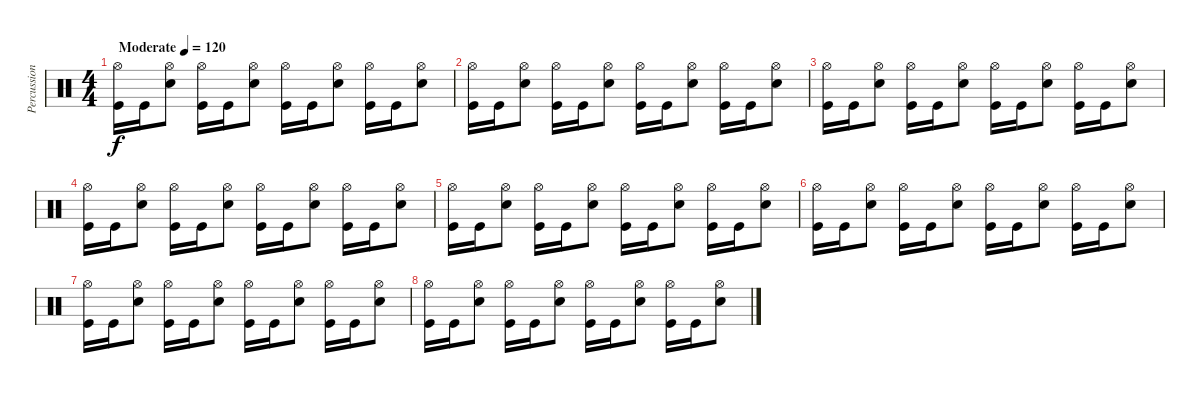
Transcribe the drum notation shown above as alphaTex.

\track ("Percussion" "Percussion") {instrument percussion}
\staff {score}
\articulation defaults
\ts (4 4)
\tempo (120 "Moderate")
\clef neutral
\ks c
("Hi-Hat (open)" "Kick (hit)").16{dy f} "Kick (hit)".16 ("Hi-Hat (open)" "Snare (hit) 2").8 ("Hi-Hat (open)" "Kick (hit)").16 "Kick (hit)".16 ("Hi-Hat (open)" "Snare (hit) 2").8 ("Hi-Hat (open)" "Kick (hit)").16 "Kick (hit)".16 ("Hi-Hat (open)" "Snare (hit) 2").8 ("Hi-Hat (open)" "Kick (hit)").16 "Kick (hit)".16 ("Hi-Hat (open)" "Snare (hit) 2").8 |
("Hi-Hat (open)" "Kick (hit)").16 "Kick (hit)".16 ("Hi-Hat (open)" "Snare (hit) 2").8 ("Hi-Hat (open)" "Kick (hit)").16 "Kick (hit)".16 ("Hi-Hat (open)" "Snare (hit) 2").8 ("Hi-Hat (open)" "Kick (hit)").16 "Kick (hit)".16 ("Hi-Hat (open)" "Snare (hit) 2").8 ("Hi-Hat (open)" "Kick (hit)").16 "Kick (hit)".16 ("Hi-Hat (open)" "Snare (hit) 2").8 |
("Hi-Hat (open)" "Kick (hit)").16 "Kick (hit)".16 ("Hi-Hat (open)" "Snare (hit) 2").8 ("Hi-Hat (open)" "Kick (hit)").16 "Kick (hit)".16 ("Hi-Hat (open)" "Snare (hit) 2").8 ("Hi-Hat (open)" "Kick (hit)").16 "Kick (hit)".16 ("Hi-Hat (open)" "Snare (hit) 2").8 ("Hi-Hat (open)" "Kick (hit)").16 "Kick (hit)".16 ("Hi-Hat (open)" "Snare (hit) 2").8 |
("Hi-Hat (open)" "Kick (hit)").16 "Kick (hit)".16 ("Hi-Hat (open)" "Snare (hit) 2").8 ("Hi-Hat (open)" "Kick (hit)").16 "Kick (hit)".16 ("Hi-Hat (open)" "Snare (hit) 2").8 ("Hi-Hat (open)" "Kick (hit)").16 "Kick (hit)".16 ("Hi-Hat (open)" "Snare (hit) 2").8 ("Hi-Hat (open)" "Kick (hit)").16 "Kick (hit)".16 ("Hi-Hat (open)" "Snare (hit) 2").8 |
("Hi-Hat (open)" "Kick (hit)").16 "Kick (hit)".16 ("Hi-Hat (open)" "Snare (hit) 2").8 ("Hi-Hat (open)" "Kick (hit)").16 "Kick (hit)".16 ("Hi-Hat (open)" "Snare (hit) 2").8 ("Hi-Hat (open)" "Kick (hit)").16 "Kick (hit)".16 ("Hi-Hat (open)" "Snare (hit) 2").8 ("Hi-Hat (open)" "Kick (hit)").16 "Kick (hit)".16 ("Hi-Hat (open)" "Snare (hit) 2").8 |
("Hi-Hat (open)" "Kick (hit)").16 "Kick (hit)".16 ("Hi-Hat (open)" "Snare (hit) 2").8 ("Hi-Hat (open)" "Kick (hit)").16 "Kick (hit)".16 ("Hi-Hat (open)" "Snare (hit) 2").8 ("Hi-Hat (open)" "Kick (hit)").16 "Kick (hit)".16 ("Hi-Hat (open)" "Snare (hit) 2").8 ("Hi-Hat (open)" "Kick (hit)").16 "Kick (hit)".16 ("Hi-Hat (open)" "Snare (hit) 2").8 |
("Hi-Hat (open)" "Kick (hit)").16 "Kick (hit)".16 ("Hi-Hat (open)" "Snare (hit) 2").8 ("Hi-Hat (open)" "Kick (hit)").16 "Kick (hit)".16 ("Hi-Hat (open)" "Snare (hit) 2").8 ("Hi-Hat (open)" "Kick (hit)").16 "Kick (hit)".16 ("Hi-Hat (open)" "Snare (hit) 2").8 ("Hi-Hat (open)" "Kick (hit)").16 "Kick (hit)".16 ("Hi-Hat (open)" "Snare (hit) 2").8 |
("Hi-Hat (open)" "Kick (hit)").16 "Kick (hit)".16 ("Hi-Hat (open)" "Snare (hit) 2").8 ("Hi-Hat (open)" "Kick (hit)").16 "Kick (hit)".16 ("Hi-Hat (open)" "Snare (hit) 2").8 ("Hi-Hat (open)" "Kick (hit)").16 "Kick (hit)".16 ("Hi-Hat (open)" "Snare (hit) 2").8 ("Hi-Hat (open)" "Kick (hit)").16 "Kick (hit)".16 ("Hi-Hat (open)" "Snare (hit) 2").8
